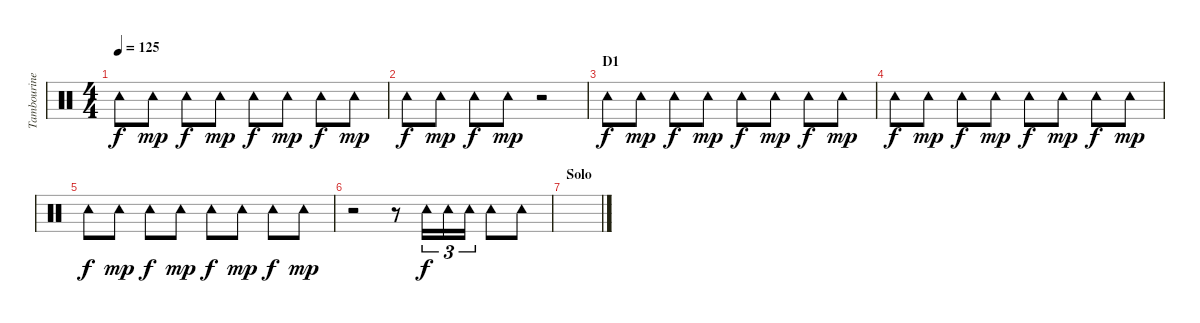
\track ("Tambourine" "Tambourine") {instrument percussion}
\staff {score}
\articulation defaults
\ts (4 4)
\tempo 125
\clef neutral
\ks c "Tambourine (hit)".8{dy f} "Tambourine (hit)".8{dy mp} "Tambourine (hit)".8{dy f} "Tambourine (hit)".8{dy mp} "Tambourine (hit)".8{dy f} "Tambourine (hit)".8{dy mp} "Tambourine (hit)".8{dy f} "Tambourine (hit)".8{dy mp}
|
"Tambourine (hit)".8{dy f} "Tambourine (hit)".8{dy mp} "Tambourine (hit)".8{dy f} "Tambourine (hit)".8{dy mp} r.2 |
\section ("" "D1")
"Tambourine (hit)".8{dy f} "Tambourine (hit)".8{dy mp} "Tambourine (hit)".8{dy f} "Tambourine (hit)".8{dy mp} "Tambourine (hit)".8{dy f} "Tambourine (hit)".8{dy mp} "Tambourine (hit)".8{dy f} "Tambourine (hit)".8{dy mp} |
"Tambourine (hit)".8{dy f} "Tambourine (hit)".8{dy mp} "Tambourine (hit)".8{dy f} "Tambourine (hit)".8{dy mp} "Tambourine (hit)".8{dy f} "Tambourine (hit)".8{dy mp} "Tambourine (hit)".8{dy f} "Tambourine (hit)".8{dy mp} |
"Tambourine (hit)".8{dy f} "Tambourine (hit)".8{dy mp} "Tambourine (hit)".8{dy f} "Tambourine (hit)".8{dy mp} "Tambourine (hit)".8{dy f} "Tambourine (hit)".8{dy mp} "Tambourine (hit)".8{dy f} "Tambourine (hit)".8{dy mp} |
r.2 r.8 "Tambourine (hit)".16{tu (3 2) dy f} "Tambourine (hit)".16{tu (3 2)} "Tambourine (hit)".16{tu (3 2)} "Tambourine (hit)".8 "Tambourine (hit)".8 |
\section ("" "Solo")
